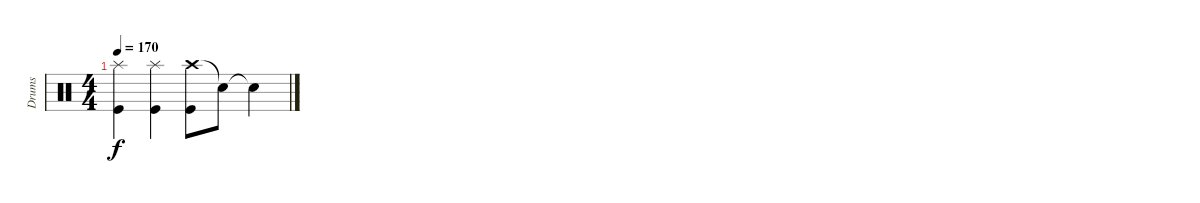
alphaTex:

\track ("Drums" "Drums") {instrument percussion}
\staff {score}
\articulation defaults
\ts (4 4)
\tempo 170
\clef neutral
\ks c
("Splash (hit)" "Kick (hit)").4{dy f} ("Splash (hit)" "Kick (hit)").4 ("Crash high (hit)" "Kick (hit)").8 "Snare (hit)"{t}.8 "Snare (hit)"{t}.4
